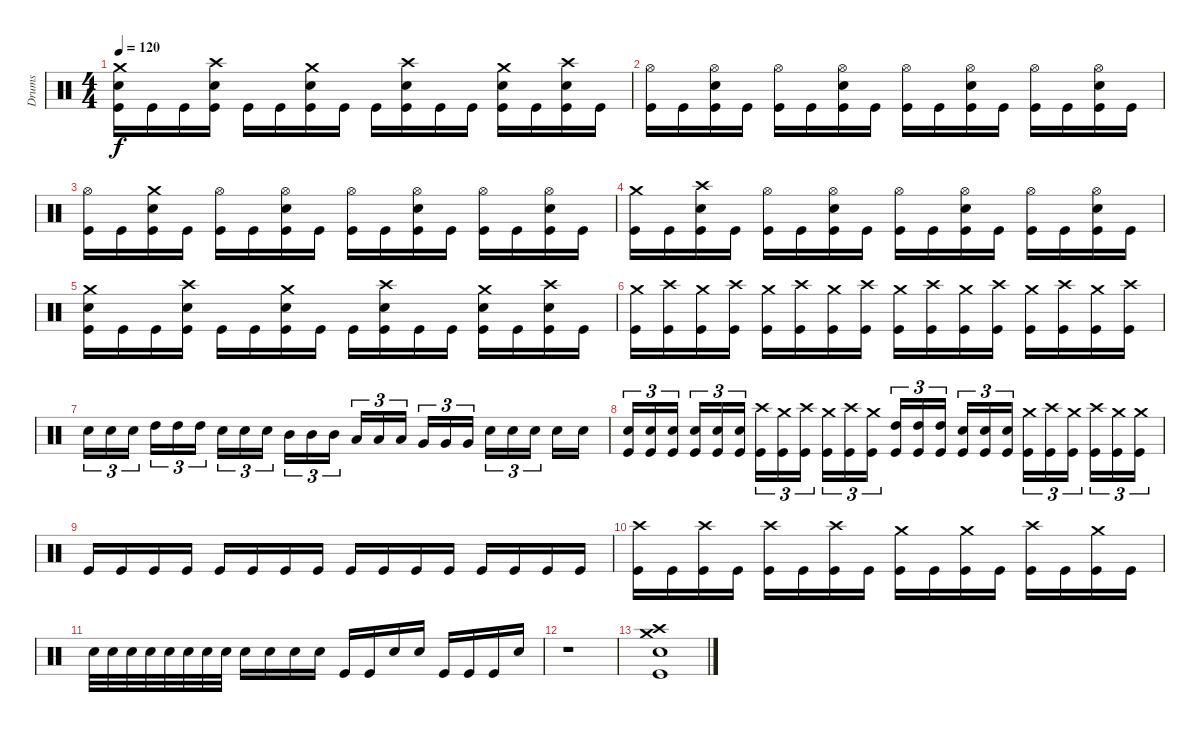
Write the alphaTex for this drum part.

\track ("Drums" "Drums") {instrument percussion}
\staff {score}
\articulation defaults
\ts (4 4)
\tempo 120
\clef neutral
\ks c
("Crash medium (hit)" "Snare (hit) 2" "Kick (hit)").16{dy f} "Kick (hit)".16 "Kick (hit)".16 ("Crash high (hit)" "Snare (hit) 2" "Kick (hit)").16 "Kick (hit)".16 "Kick (hit)".16 ("Crash medium (hit)" "Snare (hit) 2" "Kick (hit)").16 "Kick (hit)".16 "Kick (hit)".16 ("Crash high (hit)" "Snare (hit) 2" "Kick (hit)").16 "Kick (hit)".16 "Kick (hit)".16 ("Crash medium (hit)" "Snare (hit) 2" "Kick (hit)").16 "Kick (hit)".16 ("Crash high (hit)" "Snare (hit) 2" "Kick (hit)").16 "Kick (hit)".16 |
("Hi-Hat (open)" "Kick (hit)").16 "Kick (hit)".16 ("Hi-Hat (open)" "Snare (hit) 2" "Kick (hit)").16 "Kick (hit)".16 ("Hi-Hat (open)" "Kick (hit)").16 "Kick (hit)".16 ("Hi-Hat (open)" "Snare (hit) 2" "Kick (hit)").16 "Kick (hit)".16 ("Hi-Hat (open)" "Kick (hit)").16 "Kick (hit)".16 ("Hi-Hat (open)" "Snare (hit) 2" "Kick (hit)").16 "Kick (hit)".16 ("Hi-Hat (open)" "Kick (hit)").16 "Kick (hit)".16 ("Hi-Hat (open)" "Snare (hit) 2" "Kick (hit)").16 "Kick (hit)".16 |
("Hi-Hat (open)" "Kick (hit)").16 "Kick (hit)".16 ("Crash medium (hit)" "Snare (hit) 2" "Kick (hit)").16 "Kick (hit)".16 ("Hi-Hat (open)" "Kick (hit)").16 "Kick (hit)".16 ("Hi-Hat (open)" "Snare (hit) 2" "Kick (hit)").16 "Kick (hit)".16 ("Hi-Hat (open)" "Kick (hit)").16 "Kick (hit)".16 ("Hi-Hat (open)" "Snare (hit) 2" "Kick (hit)").16 "Kick (hit)".16 ("Hi-Hat (open)" "Kick (hit)").16 "Kick (hit)".16 ("Hi-Hat (open)" "Snare (hit) 2" "Kick (hit)").16 "Kick (hit)".16 |
("Crash medium (hit)" "Kick (hit)").16 "Kick (hit)".16 ("Crash high (hit)" "Snare (hit) 2" "Kick (hit)").16 "Kick (hit)".16 ("Hi-Hat (open)" "Kick (hit)").16 "Kick (hit)".16 ("Hi-Hat (open)" "Snare (hit) 2" "Kick (hit)").16 "Kick (hit)".16 ("Hi-Hat (open)" "Kick (hit)").16 "Kick (hit)".16 ("Hi-Hat (open)" "Snare (hit) 2" "Kick (hit)").16 "Kick (hit)".16 ("Hi-Hat (open)" "Kick (hit)").16 "Kick (hit)".16 ("Hi-Hat (open)" "Snare (hit) 2" "Kick (hit)").16 "Kick (hit)".16 |
("Crash medium (hit)" "Snare (hit) 2" "Kick (hit)").16 "Kick (hit)".16 "Kick (hit)".16 ("Crash high (hit)" "Snare (hit) 2" "Kick (hit)").16 "Kick (hit)".16 "Kick (hit)".16 ("Crash medium (hit)" "Snare (hit) 2" "Kick (hit)").16 "Kick (hit)".16 "Kick (hit)".16 ("Crash high (hit)" "Snare (hit) 2" "Kick (hit)").16 "Kick (hit)".16 "Kick (hit)".16 ("Crash medium (hit)" "Snare (hit) 2" "Kick (hit)").16 "Kick (hit)".16 ("Crash high (hit)" "Snare (hit) 2" "Kick (hit)").16 "Kick (hit)".16 |
("Crash medium (hit)" "Kick (hit)").16 ("Crash high (hit)" "Kick (hit)").16 ("Crash medium (hit)" "Kick (hit)").16 ("Crash high (hit)" "Kick (hit)").16 ("Crash medium (hit)" "Kick (hit)").16 ("Crash high (hit)" "Kick (hit)").16 ("Crash medium (hit)" "Kick (hit)").16 ("Crash high (hit)" "Kick (hit)").16 ("Crash medium (hit)" "Kick (hit)").16 ("Crash high (hit)" "Kick (hit)").16 ("Crash medium (hit)" "Kick (hit)").16 ("Crash high (hit)" "Kick (hit)").16 ("Crash medium (hit)" "Kick (hit)").16 ("Crash high (hit)" "Kick (hit)").16 ("Crash medium (hit)" "Kick (hit)").16 ("Crash high (hit)" "Kick (hit)").16 |
"Snare (hit) 2".16{tu (3 2)} "Snare (hit) 2".16{tu (3 2)} "Snare (hit) 2".16{tu (3 2)} "High Tom (hit)".16{tu (3 2)} "High Tom (hit)".16{tu (3 2)} "High Tom (hit)".16{tu (3 2)} "Snare (hit) 2".16{tu (3 2)} "Snare (hit) 2".16{tu (3 2)} "Snare (hit) 2".16{tu (3 2)} "Mid Tom (hit)".16{tu (3 2)} "Mid Tom (hit)".16{tu (3 2)} "Mid Tom (hit)".16{tu (3 2)} "Low Tom (hit)".16{tu (3 2)} "Low Tom (hit)".16{tu (3 2)} "Low Tom (hit)".16{tu (3 2)} "Very Low Tom (hit)".16{tu (3 2)} "Very Low Tom (hit)".16{tu (3 2)} "Very Low Tom (hit)".16{tu (3 2)} "Snare (hit) 2".16{tu (3 2)} "Snare (hit) 2".16{tu (3 2)} "Snare (hit) 2".16{tu (3 2)} "Snare (hit) 2".16 "Snare (hit) 2".16 |
("Snare (hit) 2" "Kick (hit)").16{tu (3 2)} ("Snare (hit) 2" "Kick (hit)").16{tu (3 2)} ("Snare (hit) 2" "Kick (hit)").16{tu (3 2)} ("Snare (hit) 2" "Kick (hit)").16{tu (3 2)} ("Snare (hit) 2" "Kick (hit)").16{tu (3 2)} ("Snare (hit) 2" "Kick (hit)").16{tu (3 2)} ("Crash high (hit)" "Kick (hit)").16{tu (3 2)} ("Crash medium (hit)" "Kick (hit)").16{tu (3 2)} ("Crash high (hit)" "Kick (hit)").16{tu (3 2)} ("Crash medium (hit)" "Kick (hit)").16{tu (3 2)} ("Crash high (hit)" "Kick (hit)").16{tu (3 2)} ("Crash medium (hit)" "Kick (hit)").16{tu (3 2)} ("High Tom (hit)" "Kick (hit)").16{tu (3 2)} ("High Tom (hit)" "Kick (hit)").16{tu (3 2)} ("High Tom (hit)" "Kick (hit)").16{tu (3 2)} ("Snare (hit) 2" "Kick (hit)").16{tu (3 2)} ("Snare (hit) 2" "Kick (hit)").16{tu (3 2)} ("Snare (hit) 2" "Kick (hit)").16{tu (3 2)} ("Crash medium (hit)" "Kick (hit)").16{tu (3 2)} ("Crash high (hit)" "Kick (hit)").16{tu (3 2)} ("Crash medium (hit)" "Kick (hit)").16{tu (3 2)} ("Crash high (hit)" "Kick (hit)").16{tu (3 2)} ("Crash medium (hit)" "Kick (hit)").16{tu (3 2)} ("Crash medium (hit)" "Kick (hit)").16{tu (3 2)} |
"Kick (hit)".16 "Kick (hit)".16 "Kick (hit)".16 "Kick (hit)".16 "Kick (hit)".16 "Kick (hit)".16 "Kick (hit)".16 "Kick (hit)".16 "Kick (hit)".16 "Kick (hit)".16 "Kick (hit)".16 "Kick (hit)".16 "Kick (hit)".16 "Kick (hit)".16 "Kick (hit)".16 "Kick (hit)".16 |
("Crash high (hit)" "Kick (hit)").16 "Kick (hit)".16 ("Crash high (hit)" "Kick (hit)").16 "Kick (hit)".16 ("Crash high (hit)" "Kick (hit)").16 "Kick (hit)".16 ("Crash high (hit)" "Kick (hit)").16 "Kick (hit)".16 ("Crash medium (hit)" "Kick (hit)").16 "Kick (hit)".16 ("Crash medium (hit)" "Kick (hit)").16 "Kick (hit)".16 ("Crash high (hit)" "Kick (hit)").16 "Kick (hit)".16 ("Crash medium (hit)" "Kick (hit)").16 "Kick (hit)".16 |
"Snare (hit) 2".32 "Snare (hit) 2".32 "Snare (hit) 2".32 "Snare (hit) 2".32 "Snare (hit) 2".32 "Snare (hit) 2".32 "Snare (hit) 2".32 "Snare (hit) 2".32 "Snare (hit) 2".16 "Snare (hit) 2".16 "Snare (hit) 2".16 "Snare (hit) 2".16 "Kick (hit)".16 "Kick (hit)".16 "Snare (hit) 2".16 "Snare (hit) 2".16 "Kick (hit)".16 "Kick (hit)".16 "Kick (hit)".16 "Snare (hit) 2".16 |
r.1 |
("Crash medium (hit)" "Crash high (hit)" "Snare (hit) 2" "Kick (hit)").1
